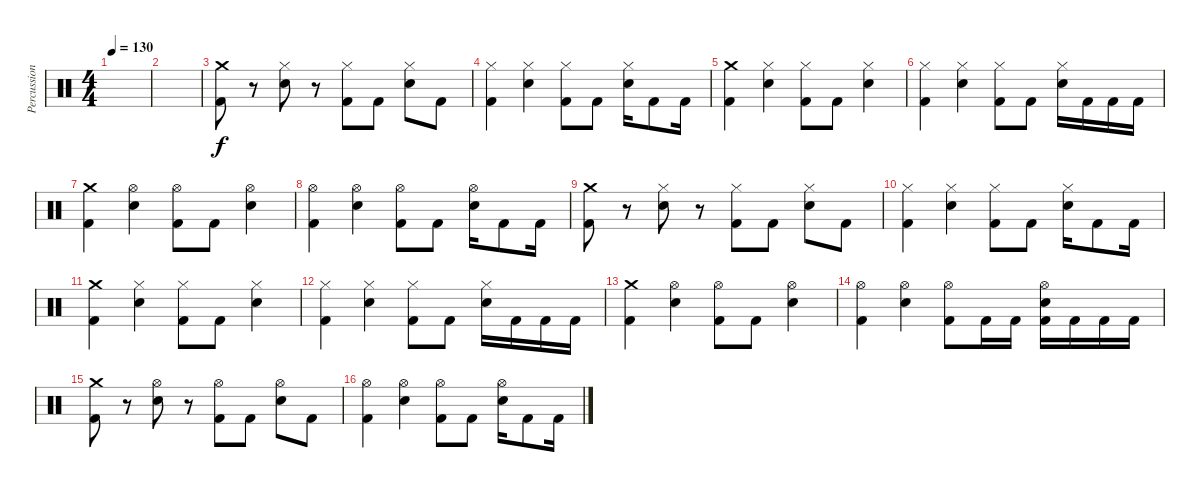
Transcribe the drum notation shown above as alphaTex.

\track ("Percussion" "Percussion") {instrument percussion}
\staff {score}
\articulation defaults
\ts (4 4)
\tempo 130
\clef neutral
\ks c
|
|
("Crash medium (hit)" "Kick (hit) 2").8 r.8 ("Hi-Hat (closed)" "Electric Snare (hit)").8 r.8 ("Hi-Hat (closed)" "Kick (hit) 2").8 "Kick (hit) 2".8 ("Hi-Hat (closed)" "Electric Snare (hit)").8 "Kick (hit) 2".8 |
("Hi-Hat (closed)" "Kick (hit) 2").4 ("Hi-Hat (closed)" "Electric Snare (hit)").4 ("Hi-Hat (closed)" "Kick (hit) 2").8 "Kick (hit) 2".8 ("Hi-Hat (closed)" "Electric Snare (hit)").16 "Kick (hit) 2".8 "Kick (hit) 2".16 |
("Crash medium (hit)" "Kick (hit) 2").4 ("Hi-Hat (closed)" "Electric Snare (hit)").4 ("Hi-Hat (closed)" "Kick (hit) 2").8 "Kick (hit) 2".8 ("Hi-Hat (closed)" "Electric Snare (hit)").4 |
("Hi-Hat (closed)" "Kick (hit) 2").4 ("Hi-Hat (closed)" "Electric Snare (hit)").4 ("Hi-Hat (closed)" "Kick (hit) 2").8 "Kick (hit) 2".8 ("Hi-Hat (closed)" "Electric Snare (hit)").16 "Kick (hit) 2".16 "Kick (hit) 2".16 "Kick (hit) 2".16 |
("Crash medium (hit)" "Kick (hit) 2").4 ("Hi-Hat (open)" "Electric Snare (hit)").4 ("Hi-Hat (open)" "Kick (hit) 2").8 "Kick (hit) 2".8 ("Hi-Hat (open)" "Electric Snare (hit)").4 |
("Hi-Hat (open)" "Kick (hit) 2").4 ("Hi-Hat (open)" "Electric Snare (hit)").4 ("Hi-Hat (open)" "Kick (hit) 2").8 "Kick (hit) 2".8 ("Hi-Hat (open)" "Electric Snare (hit)").16 "Kick (hit) 2".8 "Kick (hit) 2".16 |
("Crash medium (hit)" "Kick (hit) 2").8 r.8 ("Hi-Hat (closed)" "Electric Snare (hit)").8 r.8 ("Hi-Hat (closed)" "Kick (hit) 2").8 "Kick (hit) 2".8 ("Hi-Hat (closed)" "Electric Snare (hit)").8 "Kick (hit) 2".8 |
("Hi-Hat (closed)" "Kick (hit) 2").4 ("Hi-Hat (closed)" "Electric Snare (hit)").4 ("Hi-Hat (closed)" "Kick (hit) 2").8 "Kick (hit) 2".8 ("Hi-Hat (closed)" "Electric Snare (hit)").16 "Kick (hit) 2".8 "Kick (hit) 2".16 |
("Crash medium (hit)" "Kick (hit) 2").4 ("Hi-Hat (closed)" "Electric Snare (hit)").4 ("Hi-Hat (closed)" "Kick (hit) 2").8 "Kick (hit) 2".8 ("Hi-Hat (closed)" "Electric Snare (hit)").4 |
("Hi-Hat (closed)" "Kick (hit) 2").4 ("Hi-Hat (closed)" "Electric Snare (hit)").4 ("Hi-Hat (closed)" "Kick (hit) 2").8 "Kick (hit) 2".8 ("Hi-Hat (closed)" "Electric Snare (hit)").16 "Kick (hit) 2".16 "Kick (hit) 2".16 "Kick (hit) 2".16 |
("Crash medium (hit)" "Kick (hit) 2").4 ("Hi-Hat (open)" "Electric Snare (hit)").4 ("Hi-Hat (open)" "Kick (hit) 2").8 "Kick (hit) 2".8 ("Hi-Hat (open)" "Electric Snare (hit)").4 |
("Hi-Hat (open)" "Kick (hit) 2").4 ("Hi-Hat (open)" "Electric Snare (hit)").4 ("Hi-Hat (open)" "Kick (hit) 2").8 "Kick (hit) 2".16 "Kick (hit) 2".16 ("Hi-Hat (open)" "Electric Snare (hit)" "Kick (hit) 2").16 "Kick (hit) 2".16 "Kick (hit) 2".16 "Kick (hit) 2".16 |
("Crash medium (hit)" "Kick (hit) 2").8 r.8 ("Hi-Hat (open)" "Electric Snare (hit)").8 r.8 ("Hi-Hat (open)" "Kick (hit) 2").8 "Kick (hit) 2".8 ("Hi-Hat (open)" "Electric Snare (hit)").8 "Kick (hit) 2".8 |
("Hi-Hat (open)" "Kick (hit) 2").4 ("Hi-Hat (open)" "Electric Snare (hit)").4 ("Hi-Hat (open)" "Kick (hit) 2").8 "Kick (hit) 2".8 ("Hi-Hat (open)" "Electric Snare (hit)").16 "Kick (hit) 2".8 "Kick (hit) 2".16
